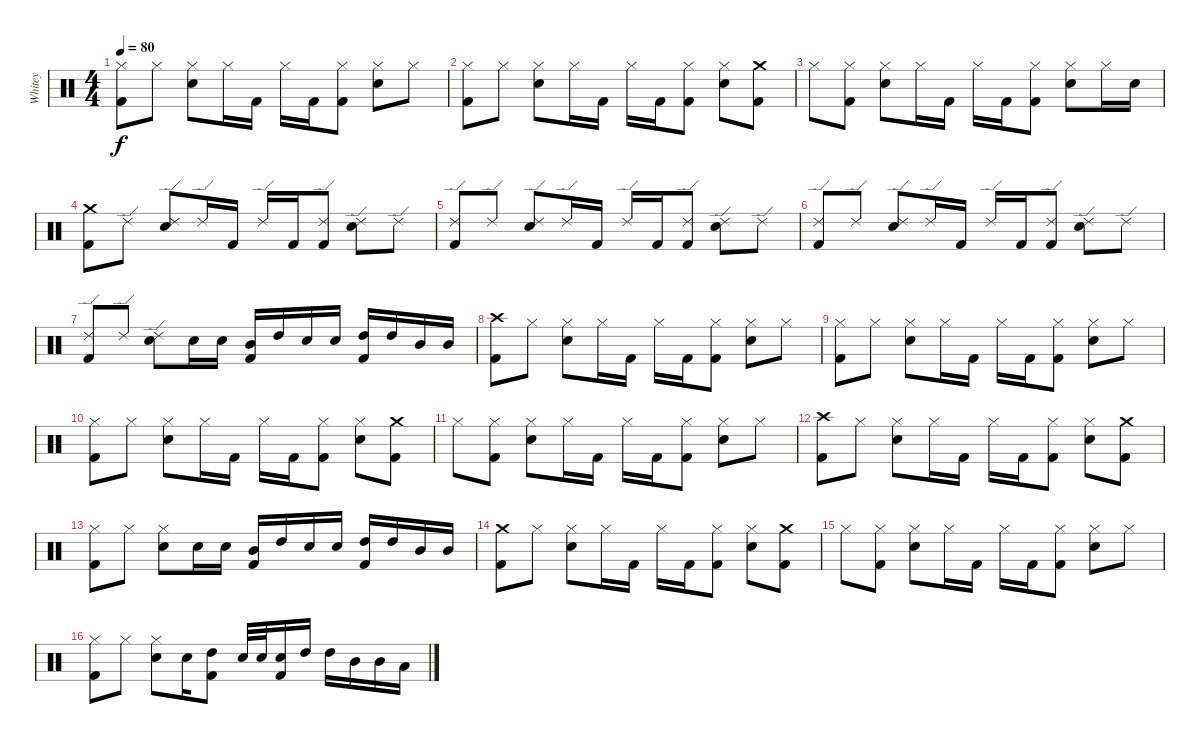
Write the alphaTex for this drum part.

\track ("Whitey" "Whitey") {instrument percussion}
\staff {score}
\articulation defaults
\ts (4 4)
\tempo 80
\clef neutral
\ks c
("Hi-Hat (closed)" "Kick (hit) 2").8{dy f} "Hi-Hat (closed)".8 ("Hi-Hat (closed)" "Snare (hit) 2").8 "Hi-Hat (closed)".16 "Kick (hit) 2".16 "Hi-Hat (closed)".16 "Kick (hit) 2".16 ("Hi-Hat (closed)" "Kick (hit) 2").8 ("Hi-Hat (closed)" "Snare (hit) 2").8 "Hi-Hat (closed)".8 |
("Hi-Hat (closed)" "Kick (hit) 2").8 "Hi-Hat (closed)".8 ("Hi-Hat (closed)" "Snare (hit) 2").8 "Hi-Hat (closed)".16 "Kick (hit) 2".16 "Hi-Hat (closed)".16 "Kick (hit) 2".16 ("Hi-Hat (closed)" "Kick (hit) 2").8 ("Hi-Hat (closed)" "Snare (hit) 2").8 ("Crash medium (hit)" "Kick (hit) 2").8 |
"Hi-Hat (closed)".8 ("Hi-Hat (closed)" "Kick (hit) 2").8 ("Hi-Hat (closed)" "Snare (hit) 2").8 "Hi-Hat (closed)".16 "Kick (hit) 2".16 "Hi-Hat (closed)".16 "Kick (hit) 2".16 ("Hi-Hat (closed)" "Kick (hit) 2").8 ("Hi-Hat (closed)" "Snare (hit) 2").8 "Hi-Hat (closed)".16 "Snare (hit) 2".16 |
("Crash medium (hit)" "Kick (hit) 2").8 "Ride (edge) 2".8 ("Ride (edge) 2" "Snare (hit) 2").8 "Ride (edge) 2".16 "Kick (hit) 2".16 "Ride (edge) 2".16 "Kick (hit) 2".16 ("Ride (edge) 2" "Kick (hit) 2").8 ("Ride (edge) 2" "Snare (hit) 2").8 "Ride (edge) 2".8 |
("Ride (edge) 2" "Kick (hit) 2").8 "Ride (edge) 2".8 ("Ride (edge) 2" "Snare (hit) 2").8 "Ride (edge) 2".16 "Kick (hit) 2".16 "Ride (edge) 2".16 "Kick (hit) 2".16 ("Ride (edge) 2" "Kick (hit) 2").8 ("Ride (edge) 2" "Snare (hit) 2").8 "Ride (edge) 2".8 |
("Ride (edge) 2" "Kick (hit) 2").8 "Ride (edge) 2".8 ("Ride (edge) 2" "Snare (hit) 2").8 "Ride (edge) 2".16 "Kick (hit) 2".16 "Ride (edge) 2".16 "Kick (hit) 2".16 ("Ride (edge) 2" "Kick (hit) 2").8 ("Ride (edge) 2" "Snare (hit) 2").8 "Ride (edge) 2".8 |
("Ride (edge) 2" "Kick (hit) 2").8 "Ride (edge) 2".8 ("Ride (edge) 2" "Snare (hit) 2").8 "Snare (hit) 2".16 "Snare (hit) 2".16 ("Mid Tom (hit)" "Kick (hit) 2").16 "High Tom (hit)".16 "Snare (hit) 2".16 "Snare (hit) 2".16 ("High Tom (hit)" "Kick (hit) 2").16 "High Tom (hit)".16 "Mid Tom (hit)".16 "Mid Tom (hit)".16 |
("Crash high (hit)" "Kick (hit) 2").8 "Hi-Hat (closed)".8 ("Hi-Hat (closed)" "Snare (hit) 2").8 "Hi-Hat (closed)".16 "Kick (hit) 2".16 "Hi-Hat (closed)".16 "Kick (hit) 2".16 ("Hi-Hat (closed)" "Kick (hit) 2").8 ("Hi-Hat (closed)" "Snare (hit) 2").8 "Hi-Hat (closed)".8 |
("Hi-Hat (closed)" "Kick (hit) 2").8 "Hi-Hat (closed)".8 ("Hi-Hat (closed)" "Snare (hit) 2").8 "Hi-Hat (closed)".16 "Kick (hit) 2".16 "Hi-Hat (closed)".16 "Kick (hit) 2".16 ("Hi-Hat (closed)" "Kick (hit) 2").8 ("Hi-Hat (closed)" "Snare (hit) 2").8 "Hi-Hat (closed)".8 |
("Hi-Hat (closed)" "Kick (hit) 2").8 "Hi-Hat (closed)".8 ("Hi-Hat (closed)" "Snare (hit) 2").8 "Hi-Hat (closed)".16 "Kick (hit) 2".16 "Hi-Hat (closed)".16 "Kick (hit) 2".16 ("Hi-Hat (closed)" "Kick (hit) 2").8 ("Hi-Hat (closed)" "Snare (hit) 2").8 ("Crash medium (hit)" "Kick (hit) 2").8 |
"Hi-Hat (closed)".8 ("Hi-Hat (closed)" "Kick (hit) 2").8 ("Hi-Hat (closed)" "Snare (hit) 2").8 "Hi-Hat (closed)".16 "Kick (hit) 2".16 "Hi-Hat (closed)".16 "Kick (hit) 2".16 ("Hi-Hat (closed)" "Kick (hit) 2").8 ("Hi-Hat (closed)" "Snare (hit) 2").8 "Hi-Hat (closed)".8 |
("Crash high (hit)" "Kick (hit) 2").8 "Hi-Hat (closed)".8 ("Hi-Hat (closed)" "Snare (hit) 2").8 "Hi-Hat (closed)".16 "Kick (hit) 2".16 "Hi-Hat (closed)".16 "Kick (hit) 2".16 ("Hi-Hat (closed)" "Kick (hit) 2").8 ("Hi-Hat (closed)" "Snare (hit) 2").8 ("Crash medium (hit)" "Kick (hit) 2").8 |
("Hi-Hat (closed)" "Kick (hit) 2").8 "Hi-Hat (closed)".8 ("Hi-Hat (closed)" "Snare (hit) 2").8 "Snare (hit) 2".16 "Snare (hit) 2".16 ("Mid Tom (hit)" "Kick (hit) 2").16 "High Tom (hit)".16 "Snare (hit) 2".16 "Snare (hit) 2".16 ("High Tom (hit)" "Kick (hit) 2").16 "High Tom (hit)".16 "Mid Tom (hit)".16 "Mid Tom (hit)".16 |
("Crash medium (hit)" "Kick (hit) 2").8 "Hi-Hat (closed)".8 ("Hi-Hat (closed)" "Snare (hit) 2").8 "Hi-Hat (closed)".16 "Kick (hit) 2".16 "Hi-Hat (closed)".16 "Kick (hit) 2".16 ("Hi-Hat (closed)" "Kick (hit) 2").8 ("Hi-Hat (closed)" "Snare (hit) 2").8 ("Crash medium (hit)" "Kick (hit) 2").8 |
"Hi-Hat (closed)".8 ("Hi-Hat (closed)" "Kick (hit) 2").8 ("Hi-Hat (closed)" "Snare (hit) 2").8 "Hi-Hat (closed)".16 "Kick (hit) 2".16 "Hi-Hat (closed)".16 "Kick (hit) 2".16 ("Hi-Hat (closed)" "Kick (hit) 2").8 ("Hi-Hat (closed)" "Snare (hit) 2").8 "Hi-Hat (closed)".8 |
("Hi-Hat (closed)" "Kick (hit) 2").8 "Hi-Hat (closed)".8 ("Hi-Hat (closed)" "Snare (hit) 2").8 "Snare (hit) 2".16 ("High Tom (hit)" "Kick (hit) 2").8 "Snare (hit) 2".32 "Snare (hit) 2".32 ("Snare (hit) 2" "Kick (hit) 2").16 "High Tom (hit)".16 "High Tom (hit)".16 "Mid Tom (hit)".16 "Mid Tom (hit)".16 "Low Tom (hit)".16
